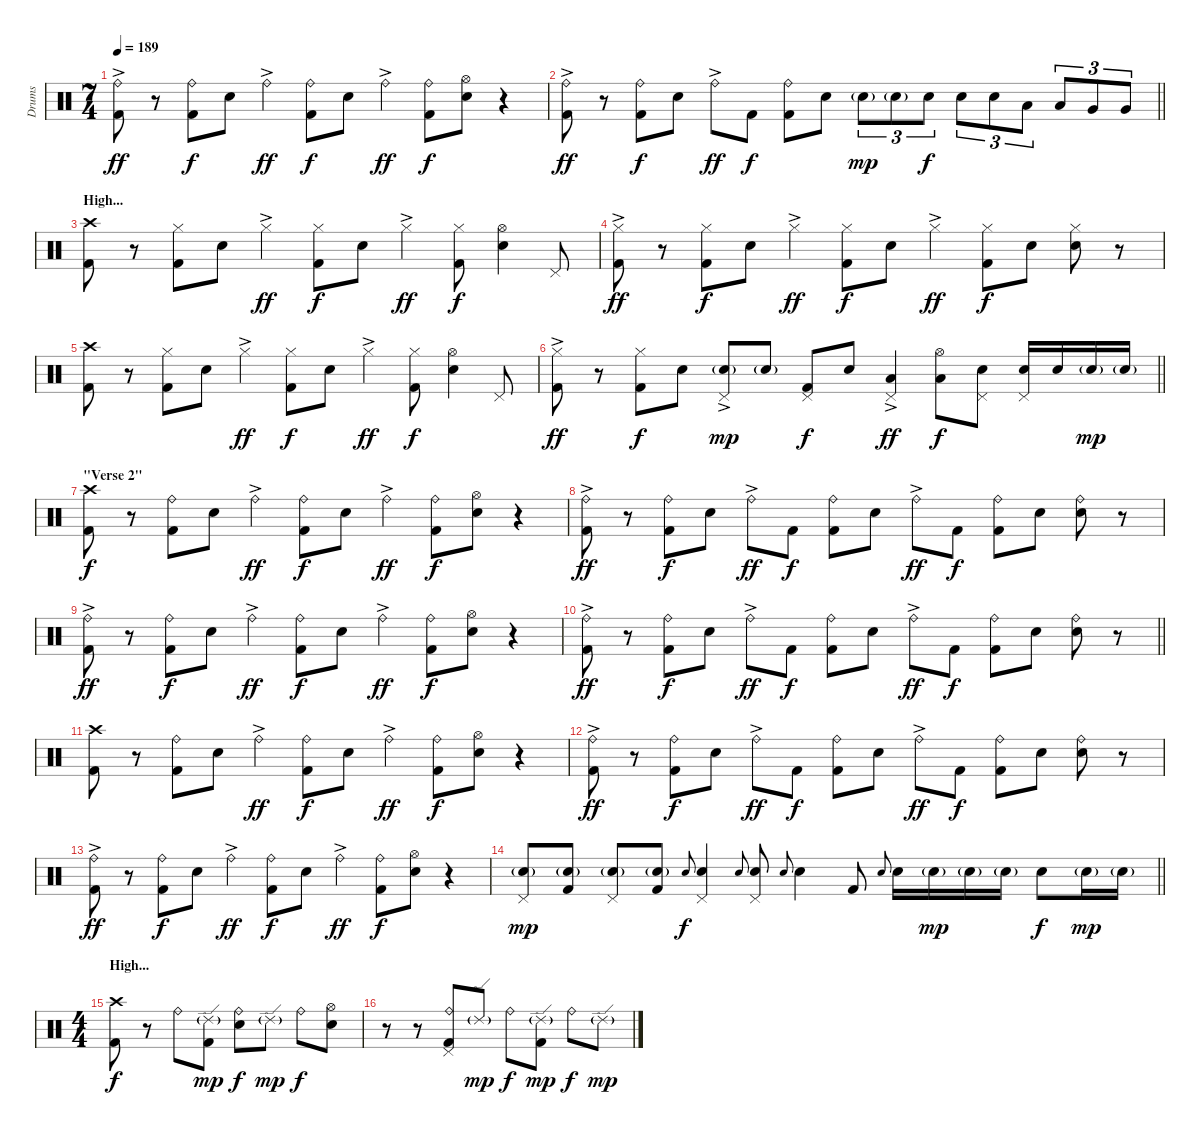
\track ("Drums" "Drums") {instrument percussion}
\staff {score}
\articulation defaults
\ts (7 4)
\tempo 189
\clef neutral
\ks c
("Ride (bell)"{ac} "Kick (hit) 2").8{dy ff} r.8 ("Ride (bell)" "Kick (hit) 2").8{dy f} "Snare (hit) 2".8 "Ride (bell)"{ac}.4{dy ff} ("Ride (bell)" "Kick (hit) 2").8{dy f} "Snare (hit) 2".8 "Ride (bell)"{ac}.4{dy ff} ("Ride (bell)" "Kick (hit) 2").8{dy f} ("Hi-Hat (open)" "Snare (hit) 2").8 r.4 |
\barLineRight lightlight
("Ride (bell)"{ac} "Kick (hit) 2").8{dy ff} r.8 ("Ride (bell)" "Kick (hit) 2").8{dy f} "Snare (hit) 2".8 "Ride (bell)"{ac}.8{dy ff} "Kick (hit) 2".8{dy f} ("Ride (bell)" "Kick (hit) 2").8 "Snare (hit) 2".8 "Electric Snare (hit)"{g}.8{tu (3 2) dy mp} "Electric Snare (hit)"{g}.8{tu (3 2)} "Snare (hit) 2".8{tu (3 2) dy f} "Snare (hit) 2".8{tu (3 2)} "Snare (hit) 2".8{tu (3 2)} "Low Tom (hit)".8{tu (3 2)} "Low Tom (hit)".8{tu (3 2)} "Very Low Tom (hit)".8{tu (3 2)} "Very Low Tom (hit)".8{tu (3 2)} |
\section ("" "High...")
("Crash high (hit)" "Kick (hit) 2").8 r.8 ("Hi-Hat (closed)" "Kick (hit) 2").8 "Snare (hit) 2".8 "Hi-Hat (closed)"{ac}.4{dy ff} ("Hi-Hat (closed)" "Kick (hit) 2").8{dy f} "Snare (hit) 2".8 "Hi-Hat (closed)"{ac}.4{dy ff} ("Hi-Hat (closed)" "Kick (hit) 2").8{dy f} ("Hi-Hat (open)" "Snare (hit) 2").4 "Pedal Hi-Hat (hit)".8 |
("Hi-Hat (closed)"{ac} "Kick (hit) 2").8{dy ff} r.8 ("Hi-Hat (closed)" "Kick (hit) 2").8{dy f} "Snare (hit) 2".8 "Hi-Hat (closed)"{ac}.4{dy ff} ("Hi-Hat (closed)" "Kick (hit) 2").8{dy f} "Snare (hit) 2".8 "Hi-Hat (closed)"{ac}.4{dy ff} ("Hi-Hat (closed)" "Kick (hit) 2").8{dy f} "Snare (hit) 2".8 ("Hi-Hat (closed)" "Electric Snare (hit)").8 r.8 |
("Crash high (hit)" "Kick (hit) 2").8 r.8 ("Hi-Hat (closed)" "Kick (hit) 2").8 "Snare (hit) 2".8 "Hi-Hat (closed)"{ac}.4{dy ff} ("Hi-Hat (closed)" "Kick (hit) 2").8{dy f} "Snare (hit) 2".8 "Hi-Hat (closed)"{ac}.4{dy ff} ("Hi-Hat (closed)" "Kick (hit) 2").8{dy f} ("Hi-Hat (open)" "Snare (hit) 2").4 "Pedal Hi-Hat (hit)".8 |
\barLineRight lightlight
("Hi-Hat (closed)"{ac} "Kick (hit) 2").8{dy ff} r.8 ("Hi-Hat (closed)" "Kick (hit) 2").8{dy f} "Snare (hit) 2".8 ("Pedal Hi-Hat (hit)"{ac} "Electric Snare (hit)"{g}).8{dy mp} "Electric Snare (hit)"{g}.8 ("Pedal Hi-Hat (hit)" "Kick (hit) 2").8{dy f} "Snare (hit) 2".8 ("Pedal Hi-Hat (hit)"{ac} "Low Tom (hit)").4{dy ff} ("Hi-Hat (open)" "Low Tom (hit)").8{dy f} ("Pedal Hi-Hat (hit)" "Snare (hit) 2").8 ("Pedal Hi-Hat (hit)" "Electric Snare (hit)").16 "Electric Snare (hit)".16 "Electric Snare (hit)"{g}.16{dy mp} "Electric Snare (hit)"{g}.16 |
\section ("" "\"Verse 2\"")
("Crash high (hit)" "Kick (hit) 2").8{dy f} r.8 ("Ride (bell)" "Kick (hit) 2").8 "Snare (hit) 2".8 "Ride (bell)"{ac}.4{dy ff} ("Ride (bell)" "Kick (hit) 2").8{dy f} "Snare (hit) 2".8 "Ride (bell)"{ac}.4{dy ff} ("Ride (bell)" "Kick (hit) 2").8{dy f} ("Hi-Hat (open)" "Snare (hit) 2").8 r.4 |
("Ride (bell)"{ac} "Kick (hit) 2").8{dy ff} r.8 ("Ride (bell)" "Kick (hit) 2").8{dy f} "Snare (hit) 2".8 "Ride (bell)"{ac}.8{dy ff} "Kick (hit) 2".8{dy f} ("Ride (bell)" "Kick (hit) 2").8 "Snare (hit) 2".8 "Ride (bell)"{ac}.8{dy ff} "Kick (hit) 2".8{dy f} ("Ride (bell)" "Kick (hit) 2").8 "Snare (hit) 2".8 ("Ride (bell)" "Electric Snare (hit)").8 r.8 |
("Ride (bell)"{ac} "Kick (hit) 2").8{dy ff} r.8 ("Ride (bell)" "Kick (hit) 2").8{dy f} "Snare (hit) 2".8 "Ride (bell)"{ac}.4{dy ff} ("Ride (bell)" "Kick (hit) 2").8{dy f} "Snare (hit) 2".8 "Ride (bell)"{ac}.4{dy ff} ("Ride (bell)" "Kick (hit) 2").8{dy f} ("Hi-Hat (open)" "Snare (hit) 2").8 r.4 |
\barLineRight lightlight
("Ride (bell)"{ac} "Kick (hit) 2").8{dy ff} r.8 ("Ride (bell)" "Kick (hit) 2").8{dy f} "Snare (hit) 2".8 "Ride (bell)"{ac}.8{dy ff} "Kick (hit) 2".8{dy f} ("Ride (bell)" "Kick (hit) 2").8 "Snare (hit) 2".8 "Ride (bell)"{ac}.8{dy ff} "Kick (hit) 2".8{dy f} ("Ride (bell)" "Kick (hit) 2").8 "Snare (hit) 2".8 ("Ride (bell)" "Electric Snare (hit)").8 r.8 |
\section ("" "")
("Crash high (hit)" "Kick (hit) 2").8 r.8 ("Ride (bell)" "Kick (hit) 2").8 "Snare (hit) 2".8 "Ride (bell)"{ac}.4{dy ff} ("Ride (bell)" "Kick (hit) 2").8{dy f} "Snare (hit) 2".8 "Ride (bell)"{ac}.4{dy ff} ("Ride (bell)" "Kick (hit) 2").8{dy f} ("Hi-Hat (open)" "Snare (hit) 2").8 r.4 |
("Ride (bell)"{ac} "Kick (hit) 2").8{dy ff} r.8 ("Ride (bell)" "Kick (hit) 2").8{dy f} "Snare (hit) 2".8 "Ride (bell)"{ac}.8{dy ff} "Kick (hit) 2".8{dy f} ("Ride (bell)" "Kick (hit) 2").8 "Snare (hit) 2".8 "Ride (bell)"{ac}.8{dy ff} "Kick (hit) 2".8{dy f} ("Ride (bell)" "Kick (hit) 2").8 "Snare (hit) 2".8 ("Ride (bell)" "Electric Snare (hit)").8 r.8 |
("Ride (bell)"{ac} "Kick (hit) 2").8{dy ff} r.8 ("Ride (bell)" "Kick (hit) 2").8{dy f} "Snare (hit) 2".8 "Ride (bell)"{ac}.4{dy ff} ("Ride (bell)" "Kick (hit) 2").8{dy f} "Snare (hit) 2".8 "Ride (bell)"{ac}.4{dy ff} ("Ride (bell)" "Kick (hit) 2").8{dy f} ("Hi-Hat (open)" "Snare (hit) 2").8 r.4 |
\barLineRight lightlight
("Pedal Hi-Hat (hit)" "Electric Snare (hit)"{g}).8{dy mp} ("Electric Snare (hit)"{g} "Kick (hit) 2").8 ("Pedal Hi-Hat (hit)" "Electric Snare (hit)"{g}).8 ("Electric Snare (hit)"{g} "Kick (hit) 2").8 "Snare (hit) 2".8{gr onbeat dy f} ("Pedal Hi-Hat (hit)" "Snare (hit) 2").4 "Snare (hit) 2".8{gr onbeat} ("Pedal Hi-Hat (hit)" "Snare (hit) 2").8 "Snare (hit) 2".8{gr onbeat} "Snare (hit) 2".4 "Kick (hit) 2".8 "Snare (hit) 2".8{gr onbeat} "Snare (hit) 2".16 "Electric Snare (hit)"{g}.16{dy mp} "Electric Snare (hit)"{g}.16 "Electric Snare (hit)"{g}.16 "Snare (hit) 2".8{dy f} "Electric Snare (hit)"{g}.16{dy mp} "Electric Snare (hit)"{g}.16 |
\ts (4 4)
\section ("" "High...")
("Crash high (hit)" "Kick (hit) 2").8{dy f} r.8 "Ride (bell)".8 ("Ride (edge) 2"{g} "Kick (hit) 2").8{dy mp} ("Ride (bell)" "Snare (hit) 2").8{dy f} "Ride (edge) 2"{g}.8{dy mp} "Ride (bell)".8{dy f} ("Hi-Hat (open)" "Snare (hit) 2").8 |
r.8 r.8 ("Ride (bell)" "Pedal Hi-Hat (hit)" "Kick (hit) 2").8 "Ride (edge) 2"{g}.8{dy mp} "Ride (bell)".8{dy f} ("Ride (edge) 2"{g} "Kick (hit) 2").8{dy mp} "Ride (bell)".8{dy f} "Ride (edge) 2"{g}.8{dy mp}
